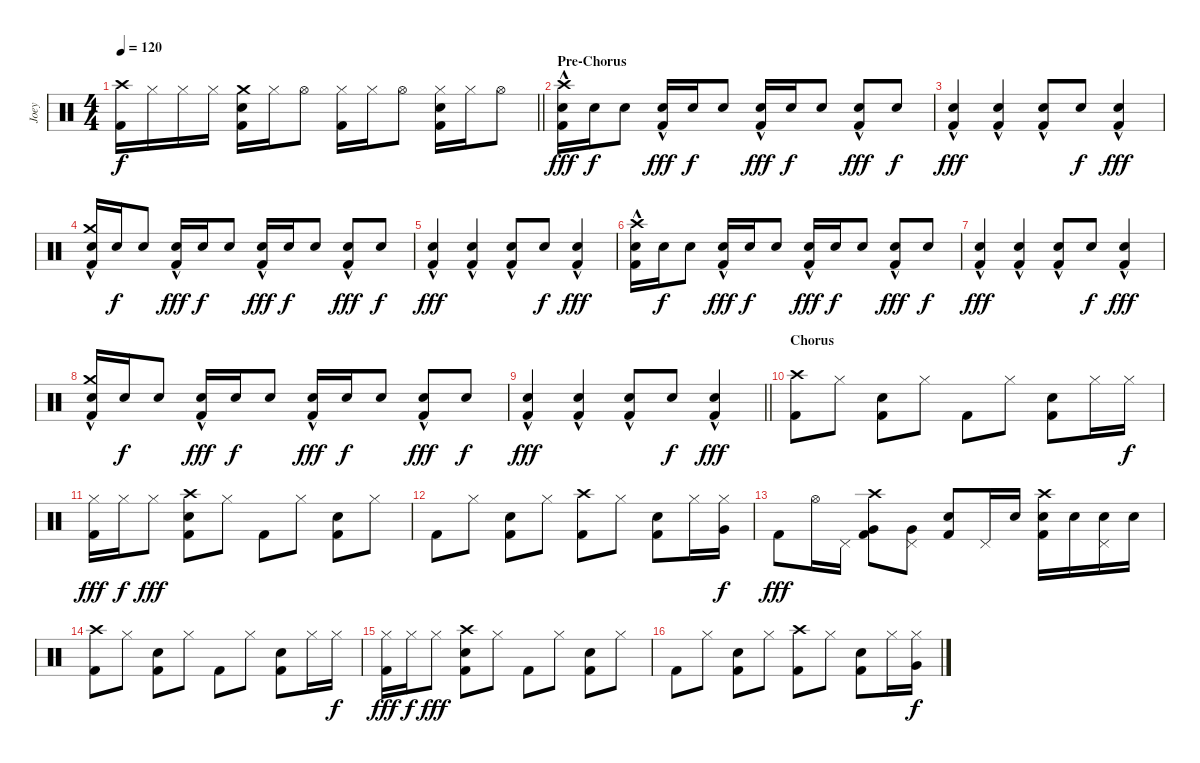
\track ("Joey" "Joey") {instrument percussion}
\staff {score}
\articulation defaults
\ts (4 4)
\tempo 120
\clef neutral
\barLineRight lightlight
\ks c
("Crash high (hit)" "Kick (hit) 2").16{dy f} "Hi-Hat (closed)".16 "Hi-Hat (closed)".16 "Hi-Hat (closed)".16 ("Crash medium (hit)" "Electric Snare (hit)" "Kick (hit) 2").16 "Hi-Hat (closed)".16 "Hi-Hat (open)".8 ("Hi-Hat (closed)" "Kick (hit) 2").16 "Hi-Hat (closed)".16 "Hi-Hat (open)".8 ("Hi-Hat (closed)" "Electric Snare (hit)" "Kick (hit) 2").16 "Hi-Hat (closed)".16 "Hi-Hat (open)".8 |
\section ("" "Pre-Chorus")
("Crash high (hit)" "Electric Snare (hit)"{hac} "Kick (hit) 2"{hac}).16{dy fff} "Electric Snare (hit)".16{dy f} "Electric Snare (hit)".8 ("Electric Snare (hit)"{hac} "Kick (hit) 2"{hac}).16{dy fff} "Electric Snare (hit)".16{dy f} "Electric Snare (hit)".8 ("Electric Snare (hit)"{hac} "Kick (hit) 2"{hac}).16{dy fff} "Electric Snare (hit)".16{dy f} "Electric Snare (hit)".8 ("Electric Snare (hit)" "Kick (hit) 2"{hac}).8{dy fff} "Electric Snare (hit)".8{dy f} |
("Electric Snare (hit)" "Kick (hit) 2"{hac}).4{dy fff} ("Electric Snare (hit)" "Kick (hit) 2"{hac}).4 ("Electric Snare (hit)" "Kick (hit) 2"{hac}).8 "Electric Snare (hit)".8{dy f} ("Electric Snare (hit)"{hac} "Kick (hit) 2"{hac}).4{dy fff} |
("Crash medium (hit)" "Electric Snare (hit)"{hac} "Kick (hit) 2"{hac}).16 "Electric Snare (hit)".16{dy f} "Electric Snare (hit)".8 ("Electric Snare (hit)"{hac} "Kick (hit) 2"{hac}).16{dy fff} "Electric Snare (hit)".16{dy f} "Electric Snare (hit)".8 ("Electric Snare (hit)"{hac} "Kick (hit) 2"{hac}).16{dy fff} "Electric Snare (hit)".16{dy f} "Electric Snare (hit)".8 ("Electric Snare (hit)" "Kick (hit) 2"{hac}).8{dy fff} "Electric Snare (hit)".8{dy f} |
("Electric Snare (hit)" "Kick (hit) 2"{hac}).4{dy fff} ("Electric Snare (hit)" "Kick (hit) 2"{hac}).4 ("Electric Snare (hit)" "Kick (hit) 2"{hac}).8 "Electric Snare (hit)".8{dy f} ("Electric Snare (hit)"{hac} "Kick (hit) 2"{hac}).4{dy fff} |
("Crash high (hit)" "Electric Snare (hit)"{hac} "Kick (hit) 2"{hac}).16 "Electric Snare (hit)".16{dy f} "Electric Snare (hit)".8 ("Electric Snare (hit)"{hac} "Kick (hit) 2"{hac}).16{dy fff} "Electric Snare (hit)".16{dy f} "Electric Snare (hit)".8 ("Electric Snare (hit)"{hac} "Kick (hit) 2"{hac}).16{dy fff} "Electric Snare (hit)".16{dy f} "Electric Snare (hit)".8 ("Electric Snare (hit)" "Kick (hit) 2"{hac}).8{dy fff} "Electric Snare (hit)".8{dy f} |
("Electric Snare (hit)" "Kick (hit) 2"{hac}).4{dy fff} ("Electric Snare (hit)" "Kick (hit) 2"{hac}).4 ("Electric Snare (hit)" "Kick (hit) 2"{hac}).8 "Electric Snare (hit)".8{dy f} ("Electric Snare (hit)"{hac} "Kick (hit) 2"{hac}).4{dy fff} |
("Crash medium (hit)" "Electric Snare (hit)"{hac} "Kick (hit) 2"{hac}).16 "Electric Snare (hit)".16{dy f} "Electric Snare (hit)".8 ("Electric Snare (hit)"{hac} "Kick (hit) 2"{hac}).16{dy fff} "Electric Snare (hit)".16{dy f} "Electric Snare (hit)".8 ("Electric Snare (hit)"{hac} "Kick (hit) 2"{hac}).16{dy fff} "Electric Snare (hit)".16{dy f} "Electric Snare (hit)".8 ("Electric Snare (hit)" "Kick (hit) 2"{hac}).8{dy fff} "Electric Snare (hit)".8{dy f} |
\barLineRight lightlight
("Electric Snare (hit)" "Kick (hit) 2"{hac}).4{dy fff} ("Electric Snare (hit)" "Kick (hit) 2"{hac}).4 ("Electric Snare (hit)" "Kick (hit) 2"{hac}).8 "Electric Snare (hit)".8{dy f} ("Electric Snare (hit)"{hac} "Kick (hit) 2"{hac}).4{dy fff} |
\section ("" "Chorus")
("Crash high (hit)" "Kick (hit) 2").8 "Hi-Hat (closed)".8 ("Electric Snare (hit)" "Kick (hit) 2").8 "Hi-Hat (closed)".8 "Kick (hit) 2".8 "Hi-Hat (closed)".8 ("Electric Snare (hit)" "Kick (hit) 2").8 "Hi-Hat (closed)".16 "Hi-Hat (closed)".16{dy f} |
("Hi-Hat (closed)" "Kick (hit) 2").16{dy fff} "Hi-Hat (closed)".16{dy f} "Hi-Hat (closed)".8{dy fff} ("Crash high (hit)" "Electric Snare (hit)" "Kick (hit) 2").8 "Hi-Hat (closed)".8 "Kick (hit) 2".8 "Hi-Hat (closed)".8 ("Electric Snare (hit)" "Kick (hit) 2").8 "Hi-Hat (closed)".8 |
"Kick (hit) 2".8 "Hi-Hat (closed)".8 ("Electric Snare (hit)" "Kick (hit) 2").8 "Hi-Hat (closed)".8 ("Crash high (hit)" "Kick (hit) 2").8 "Hi-Hat (closed)".8 ("Electric Snare (hit)" "Kick (hit) 2").8 "Hi-Hat (closed)".16 ("Hi-Hat (closed)" "Very Low Tom (hit)").16{dy f} |
"Kick (hit) 2".8{dy fff} "Hi-Hat (open)".16 "Pedal Hi-Hat (hit)".16 ("Crash high (hit)" "Very Low Tom (hit)" "Kick (hit) 2").8 ("Pedal Hi-Hat (hit)" "Very Low Tom (hit)").8 ("Electric Snare (hit)" "Kick (hit) 2").8 "Pedal Hi-Hat (hit)".16 "Electric Snare (hit)".16 ("Crash high (hit)" "Electric Snare (hit)" "Kick (hit) 2").16 "Electric Snare (hit)".16 ("Pedal Hi-Hat (hit)" "Electric Snare (hit)").16 "Electric Snare (hit)".16 |
("Crash high (hit)" "Kick (hit) 2").8 "Hi-Hat (closed)".8 ("Electric Snare (hit)" "Kick (hit) 2").8 "Hi-Hat (closed)".8 "Kick (hit) 2".8 "Hi-Hat (closed)".8 ("Electric Snare (hit)" "Kick (hit) 2").8 "Hi-Hat (closed)".16 "Hi-Hat (closed)".16{dy f} |
("Hi-Hat (closed)" "Kick (hit) 2").16{dy fff} "Hi-Hat (closed)".16{dy f} "Hi-Hat (closed)".8{dy fff} ("Crash high (hit)" "Electric Snare (hit)" "Kick (hit) 2").8 "Hi-Hat (closed)".8 "Kick (hit) 2".8 "Hi-Hat (closed)".8 ("Electric Snare (hit)" "Kick (hit) 2").8 "Hi-Hat (closed)".8 |
"Kick (hit) 2".8 "Hi-Hat (closed)".8 ("Electric Snare (hit)" "Kick (hit) 2").8 "Hi-Hat (closed)".8 ("Crash high (hit)" "Kick (hit) 2").8 "Hi-Hat (closed)".8 ("Electric Snare (hit)" "Kick (hit) 2").8 "Hi-Hat (closed)".16 ("Hi-Hat (closed)" "Very Low Tom (hit)").16{dy f}
